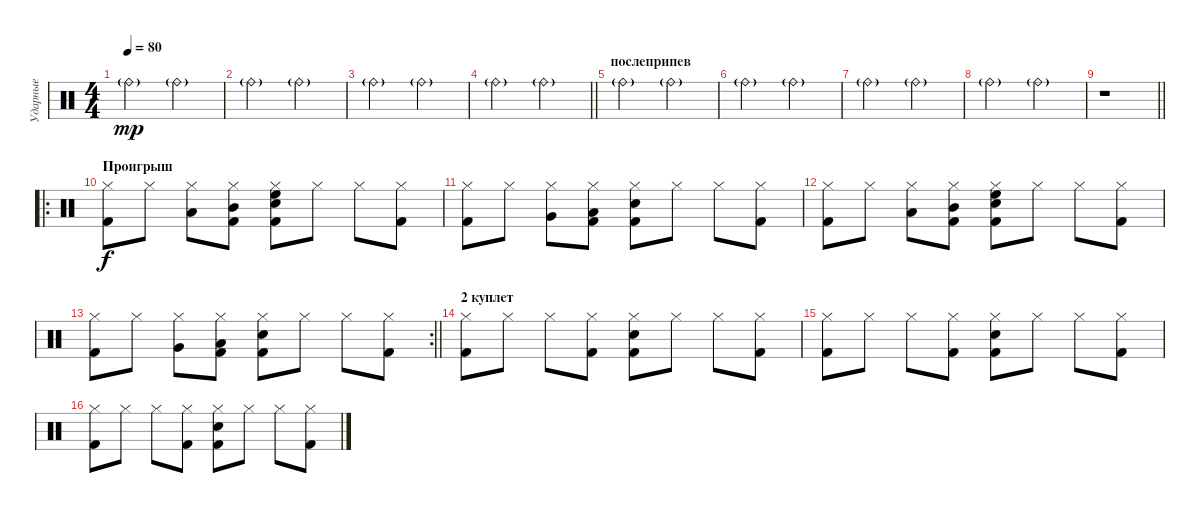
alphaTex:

\track ("Ударные" "Ударные") {instrument percussion}
\staff {score}
\articulation defaults
\ts (4 4)
\tempo 80
\clef neutral
\ks c "Ride (bell)"{g}.2{dy mp} "Ride (bell)"{g}.2
|
"Ride (bell)"{g}.2 "Ride (bell)"{g}.2 |
"Ride (bell)"{g}.2 "Ride (bell)"{g}.2 |
\barLineRight lightlight "Ride (bell)"{g}.2 "Ride (bell)"{g}.2
|
\section ("" "послеприпев")
"Ride (bell)"{g}.2 "Ride (bell)"{g}.2 |
"Ride (bell)"{g}.2 "Ride (bell)"{g}.2 |
"Ride (bell)"{g}.2 "Ride (bell)"{g}.2 |
"Ride (bell)"{g}.2 "Ride (bell)"{g}.2 |
\barLineRight lightlight
r.1 |
\ro
\section ("" "Проигрыш")
("Kick (hit) 2" "Hi-Hat (closed)").8{dy f} "Hi-Hat (closed)".8 ("Hi-Hat (closed)" "Low Tom (hit)").8 ("Kick (hit) 2" "Hi-Hat (closed)" "Mid Tom (hit)").8 ("Snare (hit) 2" "Kick (hit) 2" "Hi-Hat (closed)" "High Floor Tom (hit)").8 "Hi-Hat (closed)".8 "Hi-Hat (closed)".8 ("Kick (hit) 2" "Hi-Hat (closed)").8 |
("Kick (hit) 2" "Hi-Hat (closed)").8 "Hi-Hat (closed)".8 ("Hi-Hat (closed)" "Very Low Tom (hit)").8 ("Kick (hit) 2" "Hi-Hat (closed)" "Low Floor Tom (hit)").8 ("Snare (hit) 2" "Kick (hit) 2" "Hi-Hat (closed)").8 "Hi-Hat (closed)".8 "Hi-Hat (closed)".8 ("Kick (hit) 2" "Hi-Hat (closed)").8 |
("Kick (hit) 2" "Hi-Hat (closed)").8 "Hi-Hat (closed)".8 ("Hi-Hat (closed)" "Low Tom (hit)").8 ("Kick (hit) 2" "Hi-Hat (closed)" "Mid Tom (hit)").8 ("Snare (hit) 2" "Kick (hit) 2" "Hi-Hat (closed)" "High Floor Tom (hit)").8 "Hi-Hat (closed)".8 "Hi-Hat (closed)".8 ("Kick (hit) 2" "Hi-Hat (closed)").8 |
\rc 2
\barLineRight lightlight
("Kick (hit) 2" "Hi-Hat (closed)").8 "Hi-Hat (closed)".8 ("Hi-Hat (closed)" "Very Low Tom (hit)").8 ("Kick (hit) 2" "Hi-Hat (closed)" "Low Floor Tom (hit)").8 ("Snare (hit) 2" "Kick (hit) 2" "Hi-Hat (closed)").8 "Hi-Hat (closed)".8 "Hi-Hat (closed)".8 ("Kick (hit) 2" "Hi-Hat (closed)").8 |
\section ("" "2 куплет")
("Kick (hit) 2" "Hi-Hat (closed)").8 "Hi-Hat (closed)".8 "Hi-Hat (closed)".8 ("Kick (hit) 2" "Hi-Hat (closed)").8 ("Snare (hit) 2" "Kick (hit) 2" "Hi-Hat (closed)").8 "Hi-Hat (closed)".8 "Hi-Hat (closed)".8 ("Kick (hit) 2" "Hi-Hat (closed)").8 |
("Kick (hit) 2" "Hi-Hat (closed)").8 "Hi-Hat (closed)".8 "Hi-Hat (closed)".8 ("Kick (hit) 2" "Hi-Hat (closed)").8 ("Snare (hit) 2" "Kick (hit) 2" "Hi-Hat (closed)").8 "Hi-Hat (closed)".8 "Hi-Hat (closed)".8 ("Kick (hit) 2" "Hi-Hat (closed)").8 |
("Kick (hit) 2" "Hi-Hat (closed)").8 "Hi-Hat (closed)".8 "Hi-Hat (closed)".8 ("Kick (hit) 2" "Hi-Hat (closed)").8 ("Snare (hit) 2" "Kick (hit) 2" "Hi-Hat (closed)").8 "Hi-Hat (closed)".8 "Hi-Hat (closed)".8 ("Kick (hit) 2" "Hi-Hat (closed)").8
